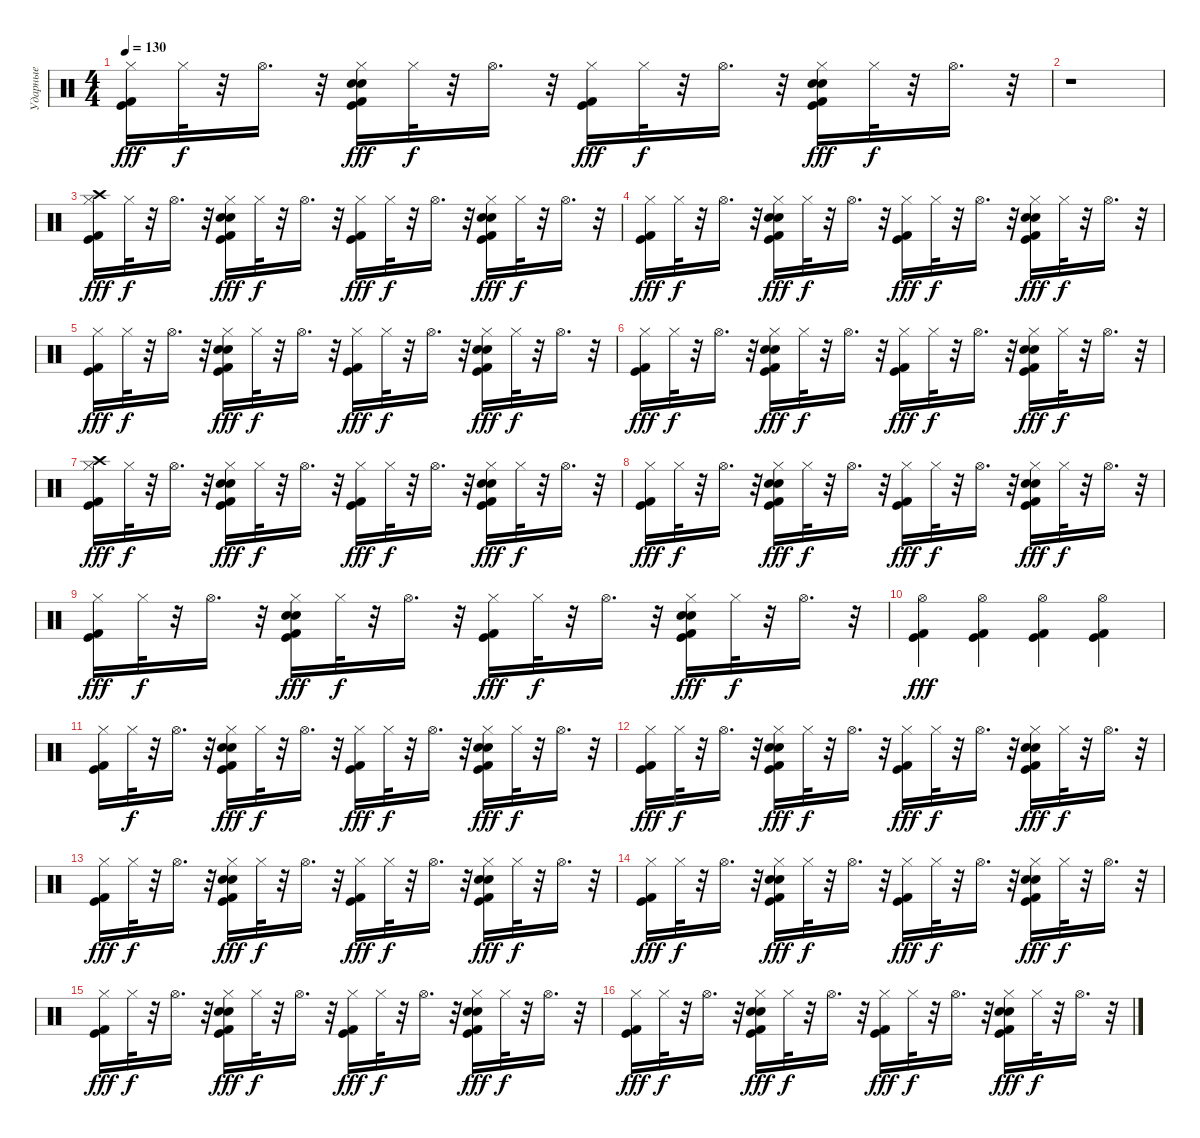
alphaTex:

\track ("Ударные" "Ударные") {instrument percussion}
\staff {score}
\articulation defaults
\ts (4 4)
\tempo 130
\clef neutral
\ks c
("Hi-Hat (closed)" "Kick (hit) 2" "Kick (hit)").16{dy fff} "Hi-Hat (closed)".32{dy f} r.32 "Hi-Hat (open)".16{d} r.32 ("Hi-Hat (closed)" "Kick (hit) 2" "Kick (hit)" "Hand Clap (hit)" "Hand Clap (hit)").16{dy fff} "Hi-Hat (closed)".32{dy f} r.32 "Hi-Hat (open)".16{d} r.32 ("Hi-Hat (closed)" "Kick (hit) 2" "Kick (hit)").16{dy fff} "Hi-Hat (closed)".32{dy f} r.32 "Hi-Hat (open)".16{d} r.32 ("Hi-Hat (closed)" "Kick (hit) 2" "Kick (hit)" "Hand Clap (hit)" "Hand Clap (hit)").16{dy fff} "Hi-Hat (closed)".32{dy f} r.32 "Hi-Hat (open)".16{d} r.32 |
r.1 |
("Crash high (hit)" "Hi-Hat (closed)" "Kick (hit) 2" "Kick (hit)").16{dy fff} "Hi-Hat (closed)".32{dy f} r.32 "Hi-Hat (open)".16{d} r.32 ("Hi-Hat (closed)" "Kick (hit) 2" "Kick (hit)" "Hand Clap (hit)" "Hand Clap (hit)").16{dy fff} "Hi-Hat (closed)".32{dy f} r.32 "Hi-Hat (open)".16{d} r.32 ("Hi-Hat (closed)" "Kick (hit) 2" "Kick (hit)").16{dy fff} "Hi-Hat (closed)".32{dy f} r.32 "Hi-Hat (open)".16{d} r.32 ("Hi-Hat (closed)" "Kick (hit) 2" "Kick (hit)" "Hand Clap (hit)" "Hand Clap (hit)").16{dy fff} "Hi-Hat (closed)".32{dy f} r.32 "Hi-Hat (open)".16{d} r.32 |
("Hi-Hat (closed)" "Kick (hit) 2" "Kick (hit)").16{dy fff} "Hi-Hat (closed)".32{dy f} r.32 "Hi-Hat (open)".16{d} r.32 ("Hi-Hat (closed)" "Kick (hit) 2" "Kick (hit)" "Hand Clap (hit)" "Hand Clap (hit)").16{dy fff} "Hi-Hat (closed)".32{dy f} r.32 "Hi-Hat (open)".16{d} r.32 ("Hi-Hat (closed)" "Kick (hit) 2" "Kick (hit)").16{dy fff} "Hi-Hat (closed)".32{dy f} r.32 "Hi-Hat (open)".16{d} r.32 ("Hi-Hat (closed)" "Kick (hit) 2" "Kick (hit)" "Hand Clap (hit)" "Hand Clap (hit)").16{dy fff} "Hi-Hat (closed)".32{dy f} r.32 "Hi-Hat (open)".16{d} r.32 |
("Hi-Hat (closed)" "Kick (hit) 2" "Kick (hit)").16{dy fff} "Hi-Hat (closed)".32{dy f} r.32 "Hi-Hat (open)".16{d} r.32 ("Hi-Hat (closed)" "Kick (hit) 2" "Kick (hit)" "Hand Clap (hit)" "Hand Clap (hit)").16{dy fff} "Hi-Hat (closed)".32{dy f} r.32 "Hi-Hat (open)".16{d} r.32 ("Hi-Hat (closed)" "Kick (hit) 2" "Kick (hit)").16{dy fff} "Hi-Hat (closed)".32{dy f} r.32 "Hi-Hat (open)".16{d} r.32 ("Hi-Hat (closed)" "Kick (hit) 2" "Kick (hit)" "Hand Clap (hit)" "Hand Clap (hit)").16{dy fff} "Hi-Hat (closed)".32{dy f} r.32 "Hi-Hat (open)".16{d} r.32 |
("Hi-Hat (closed)" "Kick (hit) 2" "Kick (hit)").16{dy fff} "Hi-Hat (closed)".32{dy f} r.32 "Hi-Hat (open)".16{d} r.32 ("Hi-Hat (closed)" "Kick (hit) 2" "Kick (hit)" "Hand Clap (hit)" "Hand Clap (hit)").16{dy fff} "Hi-Hat (closed)".32{dy f} r.32 "Hi-Hat (open)".16{d} r.32 ("Hi-Hat (closed)" "Kick (hit) 2" "Kick (hit)").16{dy fff} "Hi-Hat (closed)".32{dy f} r.32 "Hi-Hat (open)".16{d} r.32 ("Hi-Hat (closed)" "Kick (hit) 2" "Kick (hit)" "Hand Clap (hit)" "Hand Clap (hit)").16{dy fff} "Hi-Hat (closed)".32{dy f} r.32 "Hi-Hat (open)".16{d} r.32 |
("Crash high (hit)" "Hi-Hat (closed)" "Kick (hit) 2" "Kick (hit)").16{dy fff} "Hi-Hat (closed)".32{dy f} r.32 "Hi-Hat (open)".16{d} r.32 ("Hi-Hat (closed)" "Kick (hit) 2" "Kick (hit)" "Hand Clap (hit)" "Hand Clap (hit)").16{dy fff} "Hi-Hat (closed)".32{dy f} r.32 "Hi-Hat (open)".16{d} r.32 ("Hi-Hat (closed)" "Kick (hit) 2" "Kick (hit)").16{dy fff} "Hi-Hat (closed)".32{dy f} r.32 "Hi-Hat (open)".16{d} r.32 ("Hi-Hat (closed)" "Kick (hit) 2" "Kick (hit)" "Hand Clap (hit)" "Hand Clap (hit)").16{dy fff} "Hi-Hat (closed)".32{dy f} r.32 "Hi-Hat (open)".16{d} r.32 |
("Hi-Hat (closed)" "Kick (hit) 2" "Kick (hit)").16{dy fff} "Hi-Hat (closed)".32{dy f} r.32 "Hi-Hat (open)".16{d} r.32 ("Hi-Hat (closed)" "Kick (hit) 2" "Kick (hit)" "Hand Clap (hit)" "Hand Clap (hit)").16{dy fff} "Hi-Hat (closed)".32{dy f} r.32 "Hi-Hat (open)".16{d} r.32 ("Hi-Hat (closed)" "Kick (hit) 2" "Kick (hit)").16{dy fff} "Hi-Hat (closed)".32{dy f} r.32 "Hi-Hat (open)".16{d} r.32 ("Hi-Hat (closed)" "Kick (hit) 2" "Kick (hit)" "Hand Clap (hit)" "Hand Clap (hit)").16{dy fff} "Hi-Hat (closed)".32{dy f} r.32 "Hi-Hat (open)".16{d} r.32 |
("Hi-Hat (closed)" "Kick (hit) 2" "Kick (hit)").16{dy fff} "Hi-Hat (closed)".32{dy f} r.32 "Hi-Hat (open)".16{d} r.32 ("Hi-Hat (closed)" "Kick (hit) 2" "Kick (hit)" "Hand Clap (hit)" "Hand Clap (hit)").16{dy fff} "Hi-Hat (closed)".32{dy f} r.32 "Hi-Hat (open)".16{d} r.32 ("Hi-Hat (closed)" "Kick (hit) 2" "Kick (hit)").16{dy fff} "Hi-Hat (closed)".32{dy f} r.32 "Hi-Hat (open)".16{d} r.32 ("Hi-Hat (closed)" "Kick (hit) 2" "Kick (hit)" "Hand Clap (hit)" "Hand Clap (hit)").16{dy fff} "Hi-Hat (closed)".32{dy f} r.32 "Hi-Hat (open)".16{d} r.32 |
("Hi-Hat (open)" "Kick (hit) 2" "Kick (hit)").4{dy fff} ("Hi-Hat (open)" "Kick (hit) 2" "Kick (hit)").4 ("Hi-Hat (open)" "Kick (hit) 2" "Kick (hit)").4 ("Hi-Hat (open)" "Kick (hit) 2" "Kick (hit)").4 |
("Hi-Hat (closed)" "Kick (hit) 2" "Kick (hit)").16 "Hi-Hat (closed)".32{dy f} r.32 "Hi-Hat (open)".16{d} r.32 ("Hi-Hat (closed)" "Kick (hit) 2" "Kick (hit)" "Hand Clap (hit)" "Hand Clap (hit)").16{dy fff} "Hi-Hat (closed)".32{dy f} r.32 "Hi-Hat (open)".16{d} r.32 ("Hi-Hat (closed)" "Kick (hit) 2" "Kick (hit)").16{dy fff} "Hi-Hat (closed)".32{dy f} r.32 "Hi-Hat (open)".16{d} r.32 ("Hi-Hat (closed)" "Kick (hit) 2" "Kick (hit)" "Hand Clap (hit)" "Hand Clap (hit)").16{dy fff} "Hi-Hat (closed)".32{dy f} r.32 "Hi-Hat (open)".16{d} r.32 |
("Hi-Hat (closed)" "Kick (hit) 2" "Kick (hit)").16{dy fff} "Hi-Hat (closed)".32{dy f} r.32 "Hi-Hat (open)".16{d} r.32 ("Hi-Hat (closed)" "Kick (hit) 2" "Kick (hit)" "Hand Clap (hit)" "Hand Clap (hit)").16{dy fff} "Hi-Hat (closed)".32{dy f} r.32 "Hi-Hat (open)".16{d} r.32 ("Hi-Hat (closed)" "Kick (hit) 2" "Kick (hit)").16{dy fff} "Hi-Hat (closed)".32{dy f} r.32 "Hi-Hat (open)".16{d} r.32 ("Hi-Hat (closed)" "Kick (hit) 2" "Kick (hit)" "Hand Clap (hit)" "Hand Clap (hit)").16{dy fff} "Hi-Hat (closed)".32{dy f} r.32 "Hi-Hat (open)".16{d} r.32 |
("Hi-Hat (closed)" "Kick (hit) 2" "Kick (hit)").16{dy fff} "Hi-Hat (closed)".32{dy f} r.32 "Hi-Hat (open)".16{d} r.32 ("Hi-Hat (closed)" "Kick (hit) 2" "Kick (hit)" "Hand Clap (hit)" "Hand Clap (hit)").16{dy fff} "Hi-Hat (closed)".32{dy f} r.32 "Hi-Hat (open)".16{d} r.32 ("Hi-Hat (closed)" "Kick (hit) 2" "Kick (hit)").16{dy fff} "Hi-Hat (closed)".32{dy f} r.32 "Hi-Hat (open)".16{d} r.32 ("Hi-Hat (closed)" "Kick (hit) 2" "Kick (hit)" "Hand Clap (hit)" "Hand Clap (hit)").16{dy fff} "Hi-Hat (closed)".32{dy f} r.32 "Hi-Hat (open)".16{d} r.32 |
("Hi-Hat (closed)" "Kick (hit) 2" "Kick (hit)").16{dy fff} "Hi-Hat (closed)".32{dy f} r.32 "Hi-Hat (open)".16{d} r.32 ("Hi-Hat (closed)" "Kick (hit) 2" "Kick (hit)" "Hand Clap (hit)" "Hand Clap (hit)").16{dy fff} "Hi-Hat (closed)".32{dy f} r.32 "Hi-Hat (open)".16{d} r.32 ("Hi-Hat (closed)" "Kick (hit) 2" "Kick (hit)").16{dy fff} "Hi-Hat (closed)".32{dy f} r.32 "Hi-Hat (open)".16{d} r.32 ("Hi-Hat (closed)" "Kick (hit) 2" "Kick (hit)" "Hand Clap (hit)" "Hand Clap (hit)").16{dy fff} "Hi-Hat (closed)".32{dy f} r.32 "Hi-Hat (open)".16{d} r.32 |
("Hi-Hat (closed)" "Kick (hit) 2" "Kick (hit)").16{dy fff} "Hi-Hat (closed)".32{dy f} r.32 "Hi-Hat (open)".16{d} r.32 ("Hi-Hat (closed)" "Kick (hit) 2" "Kick (hit)" "Hand Clap (hit)" "Hand Clap (hit)").16{dy fff} "Hi-Hat (closed)".32{dy f} r.32 "Hi-Hat (open)".16{d} r.32 ("Hi-Hat (closed)" "Kick (hit) 2" "Kick (hit)").16{dy fff} "Hi-Hat (closed)".32{dy f} r.32 "Hi-Hat (open)".16{d} r.32 ("Hi-Hat (closed)" "Kick (hit) 2" "Kick (hit)" "Hand Clap (hit)" "Hand Clap (hit)").16{dy fff} "Hi-Hat (closed)".32{dy f} r.32 "Hi-Hat (open)".16{d} r.32 |
("Hi-Hat (closed)" "Kick (hit) 2" "Kick (hit)").16{dy fff} "Hi-Hat (closed)".32{dy f} r.32 "Hi-Hat (open)".16{d} r.32 ("Hi-Hat (closed)" "Kick (hit) 2" "Kick (hit)" "Hand Clap (hit)" "Hand Clap (hit)").16{dy fff} "Hi-Hat (closed)".32{dy f} r.32 "Hi-Hat (open)".16{d} r.32 ("Hi-Hat (closed)" "Kick (hit) 2" "Kick (hit)").16{dy fff} "Hi-Hat (closed)".32{dy f} r.32 "Hi-Hat (open)".16{d} r.32 ("Hi-Hat (closed)" "Kick (hit) 2" "Kick (hit)" "Hand Clap (hit)" "Hand Clap (hit)").16{dy fff} "Hi-Hat (closed)".32{dy f} r.32 "Hi-Hat (open)".16{d} r.32
